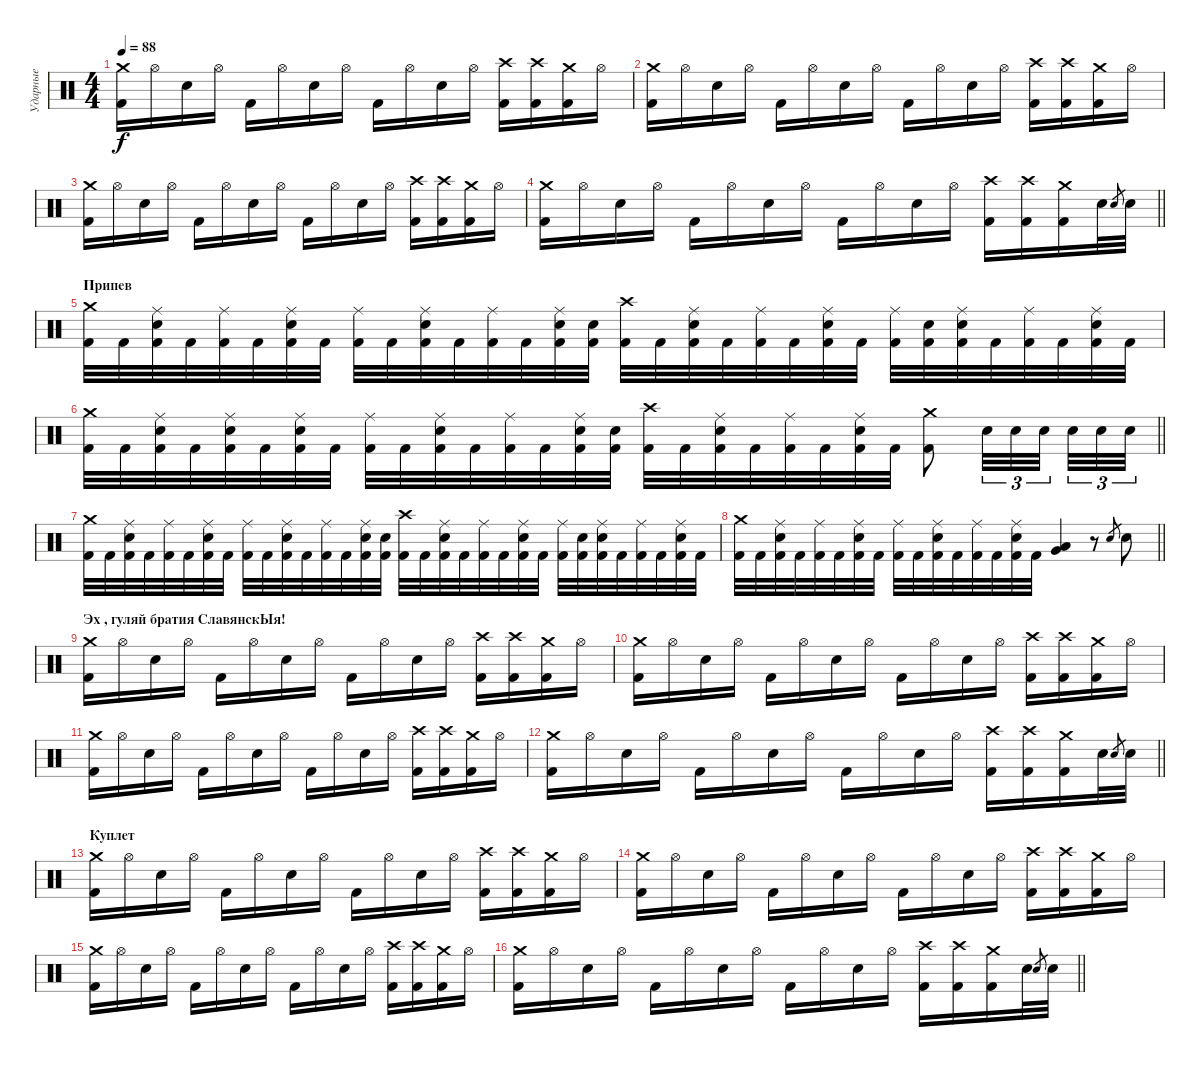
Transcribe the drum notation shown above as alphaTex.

\track ("Ударные" "Ударные") {instrument percussion}
\staff {score}
\articulation defaults
\ts (4 4)
\tempo 88
\clef neutral
\ks c
("Kick (hit) 2" "Crash medium (hit)").16{dy f} "Hi-Hat (open)".16 "Snare (hit) 2".16 "Hi-Hat (open)".16 "Kick (hit) 2".16 "Hi-Hat (open)".16 "Snare (hit) 2".16 "Hi-Hat (open)".16 "Kick (hit) 2".16 "Hi-Hat (open)".16 "Snare (hit) 2".16 "Hi-Hat (open)".16 ("Kick (hit) 2" "Crash high (hit)").16 ("Kick (hit) 2" "Crash high (hit)").16 ("Crash medium (hit)" "Kick (hit) 2").16 "Hi-Hat (open)".16 |
("Kick (hit) 2" "Crash medium (hit)").16 "Hi-Hat (open)".16 "Snare (hit) 2".16 "Hi-Hat (open)".16 "Kick (hit) 2".16 "Hi-Hat (open)".16 "Snare (hit) 2".16 "Hi-Hat (open)".16 "Kick (hit) 2".16 "Hi-Hat (open)".16 "Snare (hit) 2".16 "Hi-Hat (open)".16 ("Kick (hit) 2" "Crash high (hit)").16 ("Kick (hit) 2" "Crash high (hit)").16 ("Crash medium (hit)" "Kick (hit) 2").16 "Hi-Hat (open)".16 |
("Kick (hit) 2" "Crash medium (hit)").16 "Hi-Hat (open)".16 "Snare (hit) 2".16 "Hi-Hat (open)".16 "Kick (hit) 2".16 "Hi-Hat (open)".16 "Snare (hit) 2".16 "Hi-Hat (open)".16 "Kick (hit) 2".16 "Hi-Hat (open)".16 "Snare (hit) 2".16 "Hi-Hat (open)".16 ("Kick (hit) 2" "Crash high (hit)").16 ("Kick (hit) 2" "Crash high (hit)").16 ("Crash medium (hit)" "Kick (hit) 2").16 "Hi-Hat (open)".16 |
\barLineRight lightlight
("Kick (hit) 2" "Crash medium (hit)").16 "Hi-Hat (open)".16 "Snare (hit) 2".16 "Hi-Hat (open)".16 "Kick (hit) 2".16 "Hi-Hat (open)".16 "Snare (hit) 2".16 "Hi-Hat (open)".16 "Kick (hit) 2".16 "Hi-Hat (open)".16 "Snare (hit) 2".16 "Hi-Hat (open)".16 ("Kick (hit) 2" "Crash high (hit)").16 ("Kick (hit) 2" "Crash high (hit)").16 ("Crash medium (hit)" "Kick (hit) 2").16 "Snare (hit) 2".32 "Snare (hit) 2".8{gr} "Snare (hit) 2".32 |
\section ("" "Припев")
("Crash medium (hit)" "Kick (hit) 2").32 "Kick (hit) 2".32 ("Ride (middle)" "Snare (hit) 2" "Kick (hit) 2").32 "Kick (hit) 2".32 ("Ride (middle)" "Kick (hit) 2").32 "Kick (hit) 2".32 ("Ride (middle)" "Snare (hit) 2" "Kick (hit) 2").32 "Kick (hit) 2".32 ("Ride (middle)" "Kick (hit) 2").32 "Kick (hit) 2".32 ("Ride (middle)" "Snare (hit) 2" "Kick (hit) 2").32 "Kick (hit) 2".32 ("Ride (middle)" "Kick (hit) 2").32 "Kick (hit) 2".32 ("Ride (middle)" "Snare (hit) 2" "Kick (hit) 2").32 ("Snare (hit)" "Kick (hit) 2").32 ("Crash high (hit)" "Kick (hit) 2").32 "Kick (hit) 2".32 ("Ride (middle)" "Snare (hit) 2" "Kick (hit) 2").32 "Kick (hit) 2".32 ("Ride (middle)" "Kick (hit) 2").32 "Kick (hit) 2".32 ("Ride (middle)" "Snare (hit) 2" "Kick (hit) 2").32 "Kick (hit) 2".32 ("Ride (middle)" "Kick (hit) 2").32 ("Snare (hit)" "Kick (hit) 2").32 ("Ride (middle)" "Snare (hit) 2" "Kick (hit) 2").32 "Kick (hit) 2".32 ("Ride (middle)" "Kick (hit) 2").32 "Kick (hit) 2".32 ("Ride (middle)" "Snare (hit) 2" "Kick (hit) 2").32 "Kick (hit) 2".32 |
\barLineRight lightlight
("Crash medium (hit)" "Kick (hit) 2").32 "Kick (hit) 2".32 ("Ride (middle)" "Snare (hit) 2" "Kick (hit) 2").32 "Kick (hit) 2".32 ("Ride (middle)" "Kick (hit) 2" "Snare (hit)").32 "Kick (hit) 2".32 ("Ride (middle)" "Snare (hit) 2" "Kick (hit) 2").32 "Kick (hit) 2".32 ("Ride (middle)" "Kick (hit) 2").32 "Kick (hit) 2".32 ("Ride (middle)" "Snare (hit) 2" "Kick (hit) 2").32 "Kick (hit) 2".32 ("Ride (middle)" "Kick (hit) 2").32 "Kick (hit) 2".32 ("Ride (middle)" "Snare (hit) 2" "Kick (hit) 2").32 ("Snare (hit)" "Kick (hit) 2").32 ("Crash high (hit)" "Kick (hit) 2").32 "Kick (hit) 2".32 ("Ride (middle)" "Snare (hit) 2" "Kick (hit) 2").32 "Kick (hit) 2".32 ("Ride (middle)" "Kick (hit) 2").32 "Kick (hit) 2".32 ("Ride (middle)" "Snare (hit) 2" "Kick (hit) 2").32 "Kick (hit) 2".32 ("Kick (hit) 2" "Crash medium (hit)").8 "Snare (hit) 2".32{tu (3 2)} "Snare (hit) 2".32{tu (3 2)} "Snare (hit) 2".32{tu (3 2) beam splitsecondary} "Snare (hit) 2".32{tu (3 2)} "Snare (hit) 2".32{tu (3 2)} "Snare (hit) 2".32{tu (3 2)} |
("Crash medium (hit)" "Kick (hit) 2").32 "Kick (hit) 2".32 ("Ride (middle)" "Snare (hit) 2" "Kick (hit) 2").32 "Kick (hit) 2".32 ("Ride (middle)" "Kick (hit) 2").32 "Kick (hit) 2".32 ("Ride (middle)" "Snare (hit) 2" "Kick (hit) 2").32 "Kick (hit) 2".32 ("Ride (middle)" "Kick (hit) 2").32 "Kick (hit) 2".32 ("Ride (middle)" "Snare (hit) 2" "Kick (hit) 2").32 "Kick (hit) 2".32 ("Ride (middle)" "Kick (hit) 2").32 "Kick (hit) 2".32 ("Ride (middle)" "Snare (hit) 2" "Kick (hit) 2").32 ("Snare (hit)" "Kick (hit) 2").32 ("Crash high (hit)" "Kick (hit) 2").32 "Kick (hit) 2".32 ("Ride (middle)" "Snare (hit) 2" "Kick (hit) 2").32 "Kick (hit) 2".32 ("Ride (middle)" "Kick (hit) 2").32 "Kick (hit) 2".32 ("Ride (middle)" "Snare (hit) 2" "Kick (hit) 2").32 "Kick (hit) 2".32 ("Ride (middle)" "Kick (hit) 2").32 ("Snare (hit)" "Kick (hit) 2").32 ("Ride (middle)" "Snare (hit) 2" "Kick (hit) 2").32 "Kick (hit) 2".32 ("Ride (middle)" "Kick (hit) 2").32 "Kick (hit) 2".32 ("Ride (middle)" "Snare (hit) 2" "Kick (hit) 2").32 "Kick (hit) 2".32 |
\barLineRight lightlight
("Crash medium (hit)" "Kick (hit) 2").32 "Kick (hit) 2".32 ("Ride (middle)" "Snare (hit) 2" "Kick (hit) 2").32 "Kick (hit) 2".32 ("Ride (middle)" "Kick (hit) 2").32 "Kick (hit) 2".32 ("Ride (middle)" "Snare (hit) 2" "Kick (hit) 2").32 "Kick (hit) 2".32 ("Ride (middle)" "Kick (hit) 2").32 "Kick (hit) 2".32 ("Ride (middle)" "Snare (hit) 2" "Kick (hit) 2").32 "Kick (hit) 2".32 ("Ride (middle)" "Kick (hit) 2").32 "Kick (hit) 2".32 ("Ride (middle)" "Snare (hit) 2" "Kick (hit) 2").32 "Kick (hit) 2".32 ("Very Low Tom (hit)" "Low Floor Tom (hit)").4 r.8 "Snare (hit) 2".8{gr} "Snare (hit) 2".8 |
\section ("" "Эх , гуляй братия СлавянскЫя!")
("Kick (hit) 2" "Crash medium (hit)").16 "Hi-Hat (open)".16 "Snare (hit) 2".16 "Hi-Hat (open)".16 "Kick (hit) 2".16 "Hi-Hat (open)".16 "Snare (hit) 2".16 "Hi-Hat (open)".16 "Kick (hit) 2".16 "Hi-Hat (open)".16 "Snare (hit) 2".16 "Hi-Hat (open)".16 ("Kick (hit) 2" "Crash high (hit)").16 ("Kick (hit) 2" "Crash high (hit)").16 ("Crash medium (hit)" "Kick (hit) 2").16 "Hi-Hat (open)".16 |
("Kick (hit) 2" "Crash medium (hit)").16 "Hi-Hat (open)".16 "Snare (hit) 2".16 "Hi-Hat (open)".16 "Kick (hit) 2".16 "Hi-Hat (open)".16 "Snare (hit) 2".16 "Hi-Hat (open)".16 "Kick (hit) 2".16 "Hi-Hat (open)".16 "Snare (hit) 2".16 "Hi-Hat (open)".16 ("Kick (hit) 2" "Crash high (hit)").16 ("Kick (hit) 2" "Crash high (hit)").16 ("Crash medium (hit)" "Kick (hit) 2").16 "Hi-Hat (open)".16 |
("Kick (hit) 2" "Crash medium (hit)").16 "Hi-Hat (open)".16 "Snare (hit) 2".16 "Hi-Hat (open)".16 "Kick (hit) 2".16 "Hi-Hat (open)".16 "Snare (hit) 2".16 "Hi-Hat (open)".16 "Kick (hit) 2".16 "Hi-Hat (open)".16 "Snare (hit) 2".16 "Hi-Hat (open)".16 ("Kick (hit) 2" "Crash high (hit)").16 ("Kick (hit) 2" "Crash high (hit)").16 ("Crash medium (hit)" "Kick (hit) 2").16 "Hi-Hat (open)".16 |
\barLineRight lightlight
("Kick (hit) 2" "Crash medium (hit)").16 "Hi-Hat (open)".16 "Snare (hit) 2".16 "Hi-Hat (open)".16 "Kick (hit) 2".16 "Hi-Hat (open)".16 "Snare (hit) 2".16 "Hi-Hat (open)".16 "Kick (hit) 2".16 "Hi-Hat (open)".16 "Snare (hit) 2".16 "Hi-Hat (open)".16 ("Kick (hit) 2" "Crash high (hit)").16 ("Kick (hit) 2" "Crash high (hit)").16 ("Crash medium (hit)" "Kick (hit) 2").16 "Snare (hit) 2".32 "Snare (hit) 2".8{gr} "Snare (hit) 2".32 |
\section ("" "Куплет")
("Kick (hit) 2" "Crash medium (hit)").16 "Hi-Hat (open)".16 "Snare (hit) 2".16 "Hi-Hat (open)".16 "Kick (hit) 2".16 "Hi-Hat (open)".16 "Snare (hit) 2".16 "Hi-Hat (open)".16 "Kick (hit) 2".16 "Hi-Hat (open)".16 "Snare (hit) 2".16 "Hi-Hat (open)".16 ("Kick (hit) 2" "Crash high (hit)").16 ("Kick (hit) 2" "Crash high (hit)").16 ("Crash medium (hit)" "Kick (hit) 2").16 "Hi-Hat (open)".16 |
("Kick (hit) 2" "Crash medium (hit)").16 "Hi-Hat (open)".16 "Snare (hit) 2".16 "Hi-Hat (open)".16 "Kick (hit) 2".16 "Hi-Hat (open)".16 "Snare (hit) 2".16 "Hi-Hat (open)".16 "Kick (hit) 2".16 "Hi-Hat (open)".16 "Snare (hit) 2".16 "Hi-Hat (open)".16 ("Kick (hit) 2" "Crash high (hit)").16 ("Kick (hit) 2" "Crash high (hit)").16 ("Crash medium (hit)" "Kick (hit) 2").16 "Hi-Hat (open)".16 |
("Kick (hit) 2" "Crash medium (hit)").16 "Hi-Hat (open)".16 "Snare (hit) 2".16 "Hi-Hat (open)".16 "Kick (hit) 2".16 "Hi-Hat (open)".16 "Snare (hit) 2".16 "Hi-Hat (open)".16 "Kick (hit) 2".16 "Hi-Hat (open)".16 "Snare (hit) 2".16 "Hi-Hat (open)".16 ("Kick (hit) 2" "Crash high (hit)").16 ("Kick (hit) 2" "Crash high (hit)").16 ("Crash medium (hit)" "Kick (hit) 2").16 "Hi-Hat (open)".16 |
\barLineRight lightlight
("Kick (hit) 2" "Crash medium (hit)").16 "Hi-Hat (open)".16 "Snare (hit) 2".16 "Hi-Hat (open)".16 "Kick (hit) 2".16 "Hi-Hat (open)".16 "Snare (hit) 2".16 "Hi-Hat (open)".16 "Kick (hit) 2".16 "Hi-Hat (open)".16 "Snare (hit) 2".16 "Hi-Hat (open)".16 ("Kick (hit) 2" "Crash high (hit)").16 ("Kick (hit) 2" "Crash high (hit)").16 ("Crash medium (hit)" "Kick (hit) 2").16 "Snare (hit) 2".32 "Snare (hit) 2".8{gr} "Snare (hit) 2".32
